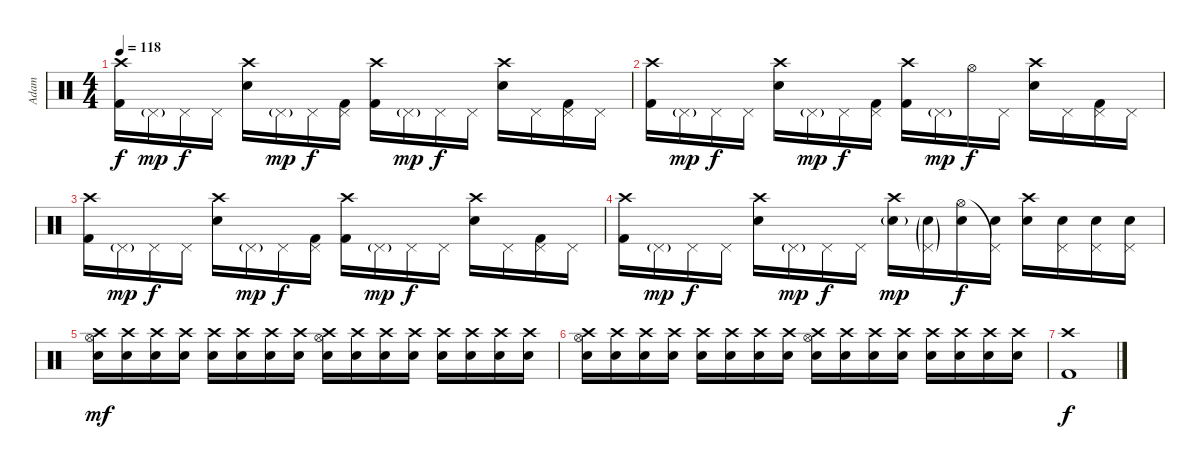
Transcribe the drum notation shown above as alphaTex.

\track ("Adam" "Adam") {instrument percussion}
\staff {score}
\articulation defaults
\ts (4 4)
\tempo 118
\clef neutral
\ks c
("Kick (hit) 2" "Crash high (hit)").16{dy f} "Pedal Hi-Hat (hit)"{g}.16{dy mp} "Pedal Hi-Hat (hit)".16{dy f} "Pedal Hi-Hat (hit)".16 ("Snare (hit) 2" "Crash high (hit)").16 "Pedal Hi-Hat (hit)"{g}.16{dy mp} "Pedal Hi-Hat (hit)".16{dy f} ("Pedal Hi-Hat (hit)" "Kick (hit) 2").16 ("Kick (hit) 2" "Crash high (hit)").16 "Pedal Hi-Hat (hit)"{g}.16{dy mp} "Pedal Hi-Hat (hit)".16{dy f} "Pedal Hi-Hat (hit)".16 ("Snare (hit) 2" "Crash high (hit)").16 "Pedal Hi-Hat (hit)".16 ("Pedal Hi-Hat (hit)" "Kick (hit) 2").16 "Pedal Hi-Hat (hit)".16 |
("Kick (hit) 2" "Crash high (hit)").16 "Pedal Hi-Hat (hit)"{g}.16{dy mp} "Pedal Hi-Hat (hit)".16{dy f} "Pedal Hi-Hat (hit)".16 ("Snare (hit) 2" "Crash high (hit)").16 "Pedal Hi-Hat (hit)"{g}.16{dy mp} "Pedal Hi-Hat (hit)".16{dy f} ("Pedal Hi-Hat (hit)" "Kick (hit) 2").16 ("Kick (hit) 2" "Crash high (hit)").16 "Pedal Hi-Hat (hit)"{g}.16{dy mp} "Hi-Hat (open)".16{dy f} "Pedal Hi-Hat (hit)".16 ("Snare (hit) 2" "Crash high (hit)").16 "Pedal Hi-Hat (hit)".16 ("Pedal Hi-Hat (hit)" "Kick (hit) 2").16 "Pedal Hi-Hat (hit)".16 |
("Kick (hit) 2" "Crash high (hit)").16 "Pedal Hi-Hat (hit)"{g}.16{dy mp} "Pedal Hi-Hat (hit)".16{dy f} "Pedal Hi-Hat (hit)".16 ("Snare (hit) 2" "Crash high (hit)").16 "Pedal Hi-Hat (hit)"{g}.16{dy mp} "Pedal Hi-Hat (hit)".16{dy f} ("Pedal Hi-Hat (hit)" "Kick (hit) 2").16 ("Kick (hit) 2" "Crash high (hit)").16 "Pedal Hi-Hat (hit)"{g}.16{dy mp} "Pedal Hi-Hat (hit)".16{dy f} "Pedal Hi-Hat (hit)".16 ("Snare (hit) 2" "Crash high (hit)").16 "Pedal Hi-Hat (hit)".16 ("Pedal Hi-Hat (hit)" "Kick (hit) 2").16 "Pedal Hi-Hat (hit)".16 |
("Kick (hit) 2" "Crash high (hit)").16 "Pedal Hi-Hat (hit)"{g}.16{dy mp} "Pedal Hi-Hat (hit)".16{dy f} "Pedal Hi-Hat (hit)".16 ("Snare (hit) 2" "Crash high (hit)").16 "Pedal Hi-Hat (hit)"{g}.16{dy mp} "Pedal Hi-Hat (hit)".16{dy f} "Pedal Hi-Hat (hit)".16 ("Snare (hit) 2"{g} "Crash high (hit)").16{dy mp} ("Snare (hit) 2"{g} "Pedal Hi-Hat (hit)"{g}).16 ("Snare (hit) 2" "Hi-Hat (open)").16{dy f} ("Snare (hit) 2" "Pedal Hi-Hat (hit)"{t}).16 ("Snare (hit) 2" "Crash high (hit)").16 ("Snare (hit) 2" "Pedal Hi-Hat (hit)").16 ("Snare (hit) 2" "Pedal Hi-Hat (hit)").16 ("Snare (hit) 2" "Pedal Hi-Hat (hit)").16 |
("Snare (hit) 2" "Hi-Hat (open)" "Crash high (hit)").16{dy mf} ("Snare (hit) 2" "Crash high (hit)").16 ("Snare (hit) 2" "Crash high (hit)").16 ("Snare (hit) 2" "Crash high (hit)").16 ("Snare (hit) 2" "Crash high (hit)").16 ("Snare (hit) 2" "Crash high (hit)").16 ("Snare (hit) 2" "Crash high (hit)").16 ("Snare (hit) 2" "Crash high (hit)").16 ("Snare (hit) 2" "Hi-Hat (open)" "Crash high (hit)").16 ("Snare (hit) 2" "Crash high (hit)").16 ("Snare (hit) 2" "Crash high (hit)").16 ("Snare (hit) 2" "Crash high (hit)").16 ("Snare (hit) 2" "Crash high (hit)").16 ("Snare (hit) 2" "Crash high (hit)").16 ("Snare (hit) 2" "Crash high (hit)").16 ("Snare (hit) 2" "Crash high (hit)").16 |
("Snare (hit) 2" "Hi-Hat (open)" "Crash high (hit)").16 ("Snare (hit) 2" "Crash high (hit)").16 ("Snare (hit) 2" "Crash high (hit)").16 ("Snare (hit) 2" "Crash high (hit)").16 ("Snare (hit) 2" "Crash high (hit)").16 ("Snare (hit) 2" "Crash high (hit)").16 ("Snare (hit) 2" "Crash high (hit)").16 ("Snare (hit) 2" "Crash high (hit)").16 ("Snare (hit) 2" "Hi-Hat (open)" "Crash high (hit)").16 ("Snare (hit) 2" "Crash high (hit)").16 ("Snare (hit) 2" "Crash high (hit)").16 ("Snare (hit) 2" "Crash high (hit)").16 ("Snare (hit) 2" "Crash high (hit)").16 ("Snare (hit) 2" "Crash high (hit)").16 ("Snare (hit) 2" "Crash high (hit)").16 ("Snare (hit) 2" "Crash high (hit)").16 |
("Crash high (hit)" "Kick (hit) 2").1{dy f}
